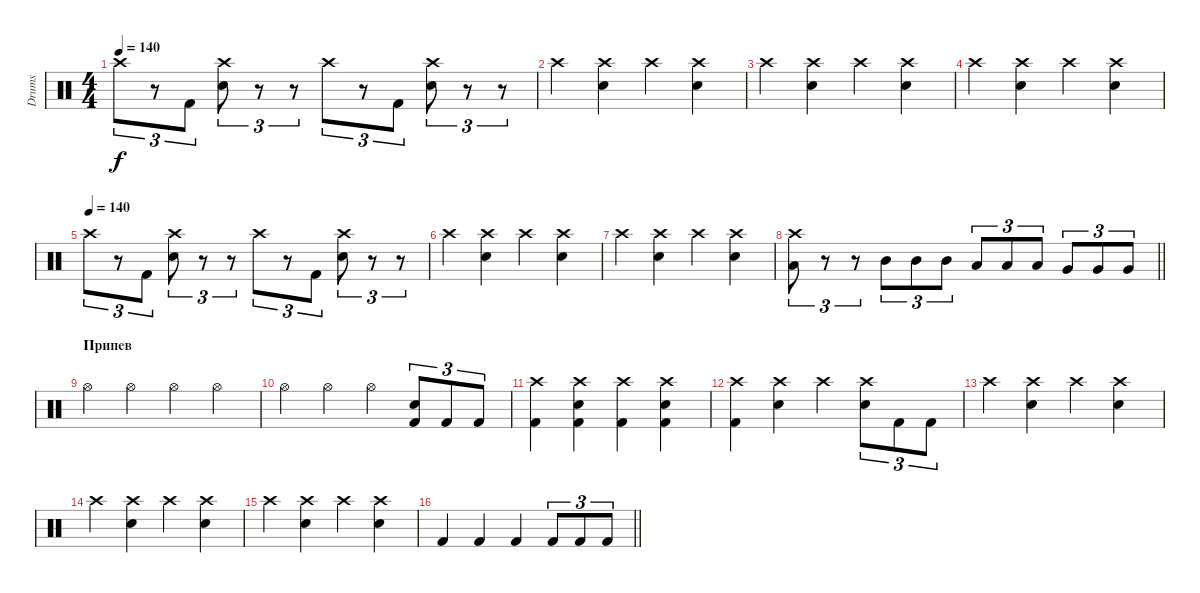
\track ("Drums" "Drums") {instrument percussion}
\staff {score}
\articulation defaults
\ts (4 4)
\tempo 140
\clef neutral
\ks c "Crash high (hit)".8{tu (3 2) dy f}
r.8{tu (3 2)} "Kick (hit) 2".8{tu (3 2)} ("Crash high (hit)" "Electric Snare (hit)").8{tu (3 2)} r.8{tu (3 2)} r.8{tu (3 2)} "Crash high (hit)".8{tu (3 2)} r.8{tu (3 2)} "Kick (hit) 2".8{tu (3 2)} ("Crash high (hit)" "Electric Snare (hit)").8{tu (3 2)} r.8{tu (3 2)} r.8{tu (3 2)} |
"Crash high (hit)".4 ("Electric Snare (hit)" "Crash high (hit)").4 "Crash high (hit)".4 ("Electric Snare (hit)" "Crash high (hit)").4 |
"Crash high (hit)".4 ("Electric Snare (hit)" "Crash high (hit)").4 "Crash high (hit)".4 ("Electric Snare (hit)" "Crash high (hit)").4 |
"Crash high (hit)".4 ("Electric Snare (hit)" "Crash high (hit)").4 "Crash high (hit)".4 ("Electric Snare (hit)" "Crash high (hit)").4 |
\tempo (140)
"Crash high (hit)".8{tu (3 2)} r.8{tu (3 2)} "Kick (hit) 2".8{tu (3 2)} ("Crash high (hit)" "Electric Snare (hit)").8{tu (3 2)} r.8{tu (3 2)} r.8{tu (3 2)} "Crash high (hit)".8{tu (3 2)} r.8{tu (3 2)} "Kick (hit) 2".8{tu (3 2)} ("Crash high (hit)" "Electric Snare (hit)").8{tu (3 2)} r.8{tu (3 2)} r.8{tu (3 2)} |
"Crash high (hit)".4 ("Electric Snare (hit)" "Crash high (hit)").4 "Crash high (hit)".4 ("Electric Snare (hit)" "Crash high (hit)").4 |
"Crash high (hit)".4 ("Electric Snare (hit)" "Crash high (hit)").4 "Crash high (hit)".4 ("Electric Snare (hit)" "Crash high (hit)").4 |
\barLineRight lightlight
("Crash high (hit)" "Low Tom (hit)").8{tu (3 2)} r.8{tu (3 2)} r.8{tu (3 2)} "Mid Tom (hit)".8{tu (3 2)} "Mid Tom (hit)".8{tu (3 2)} "Mid Tom (hit)".8{tu (3 2)} "Low Tom (hit)".8{tu (3 2)} "Low Tom (hit)".8{tu (3 2)} "Low Tom (hit)".8{tu (3 2)} "Very Low Tom (hit)".8{tu (3 2)} "Very Low Tom (hit)".8{tu (3 2)} "Very Low Tom (hit)".8{tu (3 2)} |
\section ("" "Припев")
"Hi-Hat (open)".4 "Hi-Hat (open)".4 "Hi-Hat (open)".4 "Hi-Hat (open)".4 |
"Hi-Hat (open)".4 "Hi-Hat (open)".4 "Hi-Hat (open)".4 ("Electric Snare (hit)" "Kick (hit) 2").8{tu (3 2)} "Kick (hit) 2".8{tu (3 2)} "Kick (hit) 2".8{tu (3 2)} |
("Crash high (hit)" "Kick (hit) 2").4 ("Electric Snare (hit)" "Crash high (hit)" "Kick (hit) 2").4 ("Crash high (hit)" "Kick (hit) 2").4 ("Electric Snare (hit)" "Crash high (hit)" "Kick (hit) 2").4 |
("Crash high (hit)" "Kick (hit) 2").4 ("Crash high (hit)" "Electric Snare (hit)").4 "Crash high (hit)".4 ("Crash high (hit)" "Electric Snare (hit)").8{tu (3 2)} "Kick (hit) 2".8{tu (3 2)} "Kick (hit) 2".8{tu (3 2)} |
"Crash high (hit)".4 ("Crash high (hit)" "Electric Snare (hit)").4 "Crash high (hit)".4 ("Crash high (hit)" "Electric Snare (hit)").4 |
"Crash high (hit)".4 ("Electric Snare (hit)" "Crash high (hit)").4 "Crash high (hit)".4 ("Electric Snare (hit)" "Crash high (hit)").4 |
"Crash high (hit)".4 ("Electric Snare (hit)" "Crash high (hit)").4 "Crash high (hit)".4 ("Electric Snare (hit)" "Crash high (hit)").4 |
\barLineRight lightlight "Kick (hit) 2".4 "Kick (hit) 2".4 "Kick (hit) 2".4 "Kick (hit) 2".8{tu (3 2)} "Kick (hit) 2".8{tu (3 2)} "Kick (hit) 2".8{tu (3 2)}
